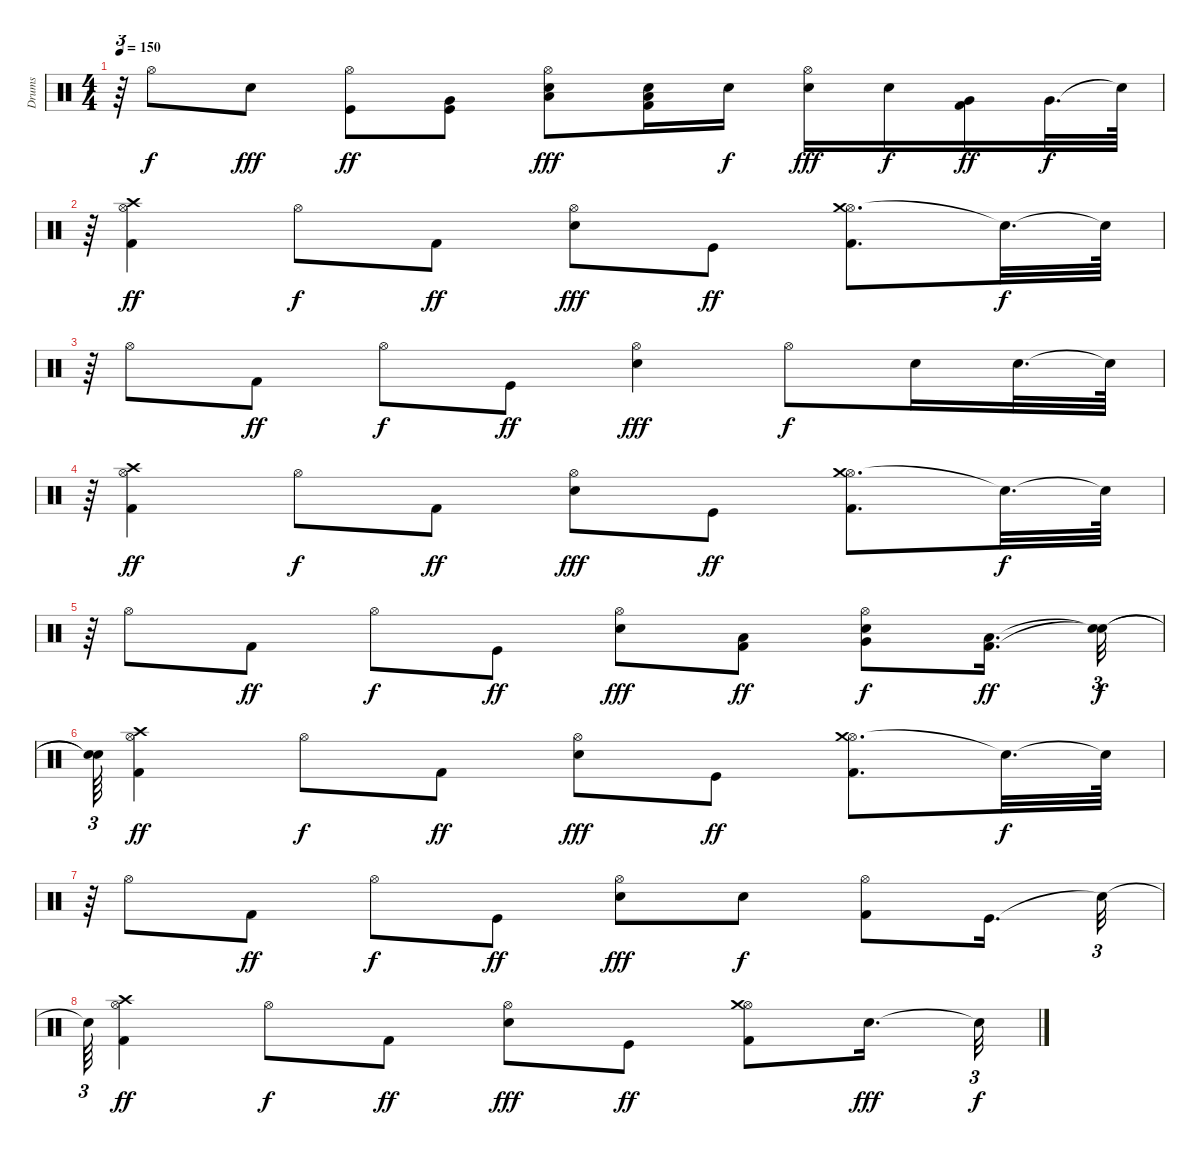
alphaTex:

\track ("Drums" "Drums") {instrument percussion}
\staff {score}
\articulation defaults
\ts (4 4)
\tempo 150
\clef neutral
\ks c
r.64{tu (3 2) dy f} "Hi-Hat (open)".8 "Electric Snare (hit)".8{dy fff} ("Hi-Hat (open)" "Kick (hit)").8{dy ff} ("Very Low Tom (hit)" "Kick (hit)").8 ("Hi-Hat (open)" "Electric Snare (hit)" "Low Tom (hit)").8{dy fff} ("Low Tom (hit)" "Kick (hit) 2" "Electric Snare (hit)").16 "Electric Snare (hit)".16{dy f} ("Hi-Hat (open)" "Electric Snare (hit)").16{dy fff} "Electric Snare (hit)".16{dy f} ("Kick (hit) 2" "Very Low Tom (hit)").16{dy ff} "Very Low Tom (hit)".32{d dy f} "Snare (hit)"{t}.64 |
r.64{tu (3 2)} ("Hi-Hat (open)" "Crash high (hit)" "Kick (hit) 2").4{dy ff} "Hi-Hat (open)".8{dy f} "Kick (hit) 2".8{dy ff} ("Hi-Hat (open)" "Electric Snare (hit)").8{dy fff} "Kick (hit)".8{dy ff} ("Hi-Hat (open)" "Crash medium (hit)" "Kick (hit) 2").8{d} "Snare (hit)"{t}.32{d dy f} "Snare (hit)"{t}.64 |
r.64{tu (3 2)} "Hi-Hat (open)".8 "Kick (hit) 2".8{dy ff} "Hi-Hat (open)".8{dy f} "Kick (hit)".8{dy ff} ("Hi-Hat (open)" "Electric Snare (hit)").4{dy fff} "Hi-Hat (open)".8{dy f} "Electric Snare (hit)".16 "Electric Snare (hit)".32{d} "Snare (hit)"{t}.64 |
r.64{tu (3 2)} ("Hi-Hat (open)" "Crash high (hit)" "Kick (hit) 2").4{dy ff} "Hi-Hat (open)".8{dy f} "Kick (hit) 2".8{dy ff} ("Hi-Hat (open)" "Electric Snare (hit)").8{dy fff} "Kick (hit)".8{dy ff} ("Hi-Hat (open)" "Crash medium (hit)" "Kick (hit) 2").8{d} "Snare (hit)"{t}.32{d dy f} "Snare (hit)"{t}.64 |
r.64{tu (3 2)} "Hi-Hat (open)".8 "Kick (hit) 2".8{dy ff} "Hi-Hat (open)".8{dy f} "Kick (hit)".8{dy ff} ("Hi-Hat (open)" "Electric Snare (hit)").8{dy fff} ("Low Tom (hit)" "Kick (hit) 2").8{dy ff} ("Electric Snare (hit)" "Very Low Tom (hit)" "Hi-Hat (open)").8{dy f} ("Low Floor Tom (hit)" "Kick (hit) 2").16{d dy ff} ("Snare (hit)"{t} "Snare (hit)"{t}).32{tu (3 2) dy f} |
("Snare (hit)"{t} "Snare (hit)"{t}).64{tu (3 2)} ("Hi-Hat (open)" "Crash high (hit)" "Kick (hit) 2").4{dy ff} "Hi-Hat (open)".8{dy f} "Kick (hit) 2".8{dy ff} ("Hi-Hat (open)" "Electric Snare (hit)").8{dy fff} "Kick (hit)".8{dy ff} ("Hi-Hat (open)" "Crash medium (hit)" "Kick (hit) 2").8{d} "Snare (hit)"{t}.32{d dy f} "Snare (hit)"{t}.64 |
r.64{tu (3 2)} "Hi-Hat (open)".8 "Kick (hit) 2".8{dy ff} "Hi-Hat (open)".8{dy f} "Kick (hit)".8{dy ff} ("Hi-Hat (open)" "Electric Snare (hit)").8{dy fff} "Electric Snare (hit)".8{dy f} ("Hi-Hat (open)" "Kick (hit) 2").8 "Kick (hit)".16{d} "Snare (hit)"{t}.32{tu (3 2)} |
"Snare (hit)"{t}.64{tu (3 2)} ("Hi-Hat (open)" "Crash high (hit)" "Kick (hit) 2").4{dy ff} "Hi-Hat (open)".8{dy f} "Kick (hit) 2".8{dy ff} ("Hi-Hat (open)" "Electric Snare (hit)").8{dy fff} "Kick (hit)".8{dy ff} ("Hi-Hat (open)" "Crash medium (hit)" "Kick (hit) 2").8 "Electric Snare (hit)".16{d dy fff} "Snare (hit)"{t}.32{tu (3 2) dy f}
